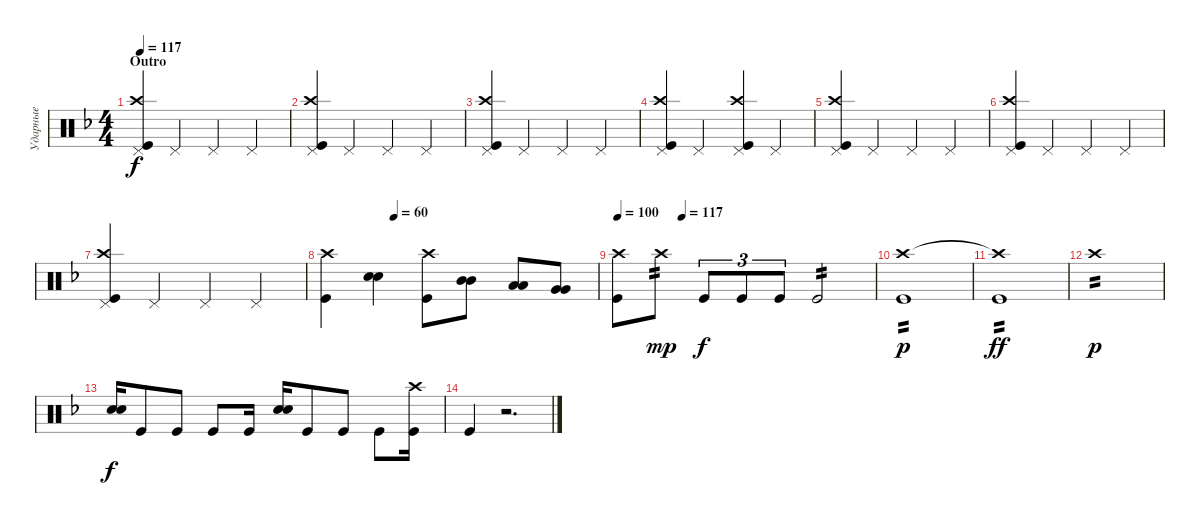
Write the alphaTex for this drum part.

\track ("Ударные" "Ударные") {instrument percussion}
\staff {score}
\articulation defaults
\ts (4 4)
\section ("" "Outro")
\tempo 117
\clef neutral
\ks dminor
("Kick (hit)" "Crash high (hit)" "Pedal Hi-Hat (hit)").4{dy f} "Pedal Hi-Hat (hit)".4 "Pedal Hi-Hat (hit)".4 "Pedal Hi-Hat (hit)".4 |
("Kick (hit)" "Crash high (hit)" "Pedal Hi-Hat (hit)").4 "Pedal Hi-Hat (hit)".4 "Pedal Hi-Hat (hit)".4 "Pedal Hi-Hat (hit)".4 |
("Kick (hit)" "Crash high (hit)" "Pedal Hi-Hat (hit)").4 "Pedal Hi-Hat (hit)".4 "Pedal Hi-Hat (hit)".4 "Pedal Hi-Hat (hit)".4 |
("Kick (hit)" "Crash high (hit)" "Pedal Hi-Hat (hit)").4 "Pedal Hi-Hat (hit)".4 ("Pedal Hi-Hat (hit)" "Crash high (hit)" "Kick (hit)").4 "Pedal Hi-Hat (hit)".4 |
("Kick (hit)" "Crash high (hit)" "Pedal Hi-Hat (hit)").4 "Pedal Hi-Hat (hit)".4 "Pedal Hi-Hat (hit)".4 "Pedal Hi-Hat (hit)".4 |
("Kick (hit)" "Crash high (hit)" "Pedal Hi-Hat (hit)").4 "Pedal Hi-Hat (hit)".4 "Pedal Hi-Hat (hit)".4 "Pedal Hi-Hat (hit)".4 |
("Kick (hit)" "Crash high (hit)" "Pedal Hi-Hat (hit)").4 "Pedal Hi-Hat (hit)".4 "Pedal Hi-Hat (hit)".4 "Pedal Hi-Hat (hit)".4 |
\tempo (60 0.25)
("Kick (hit)" "Crash high (hit)").4 ("Snare (hit) 2" "Snare (hit) 2").4 ("Kick (hit)" "Crash high (hit)").8 ("Mid Tom (hit)" "Mid Tom (hit)").8 ("Low Tom (hit)" "Low Tom (hit)").8 ("Very Low Tom (hit)" "Very Low Tom (hit)").8 |
\tempo 100
\tempo (117 0.25)
("Kick (hit)" "Crash high (hit)").8 "Crash high (hit)".8{tp 2 dy mp} "Kick (hit)".8{tu (3 2) dy f} "Kick (hit)".8{tu (3 2)} "Kick (hit)".8{tu (3 2)} "Kick (hit)".2{tp 2} |
("Kick (hit)" "Crash high (hit)").1{tp 2 dy p} |
("Kick (hit)" "Crash high (hit)"{t}).1{tp 2 dy ff} |
"Crash high (hit)".1{tp 2 dy p} |
("Snare (hit) 2" "Snare (hit) 2").16{bd 480 dy f} "Kick (hit)".8 "Kick (hit)".8 "Kick (hit)".8 "Kick (hit)".16 ("Snare (hit) 2" "Snare (hit) 2").16{bd 480} "Kick (hit)".8 "Kick (hit)".8 "Kick (hit)".8 ("Kick (hit)" "Crash high (hit)").16 |
"Kick (hit)".4 r.2{d}
